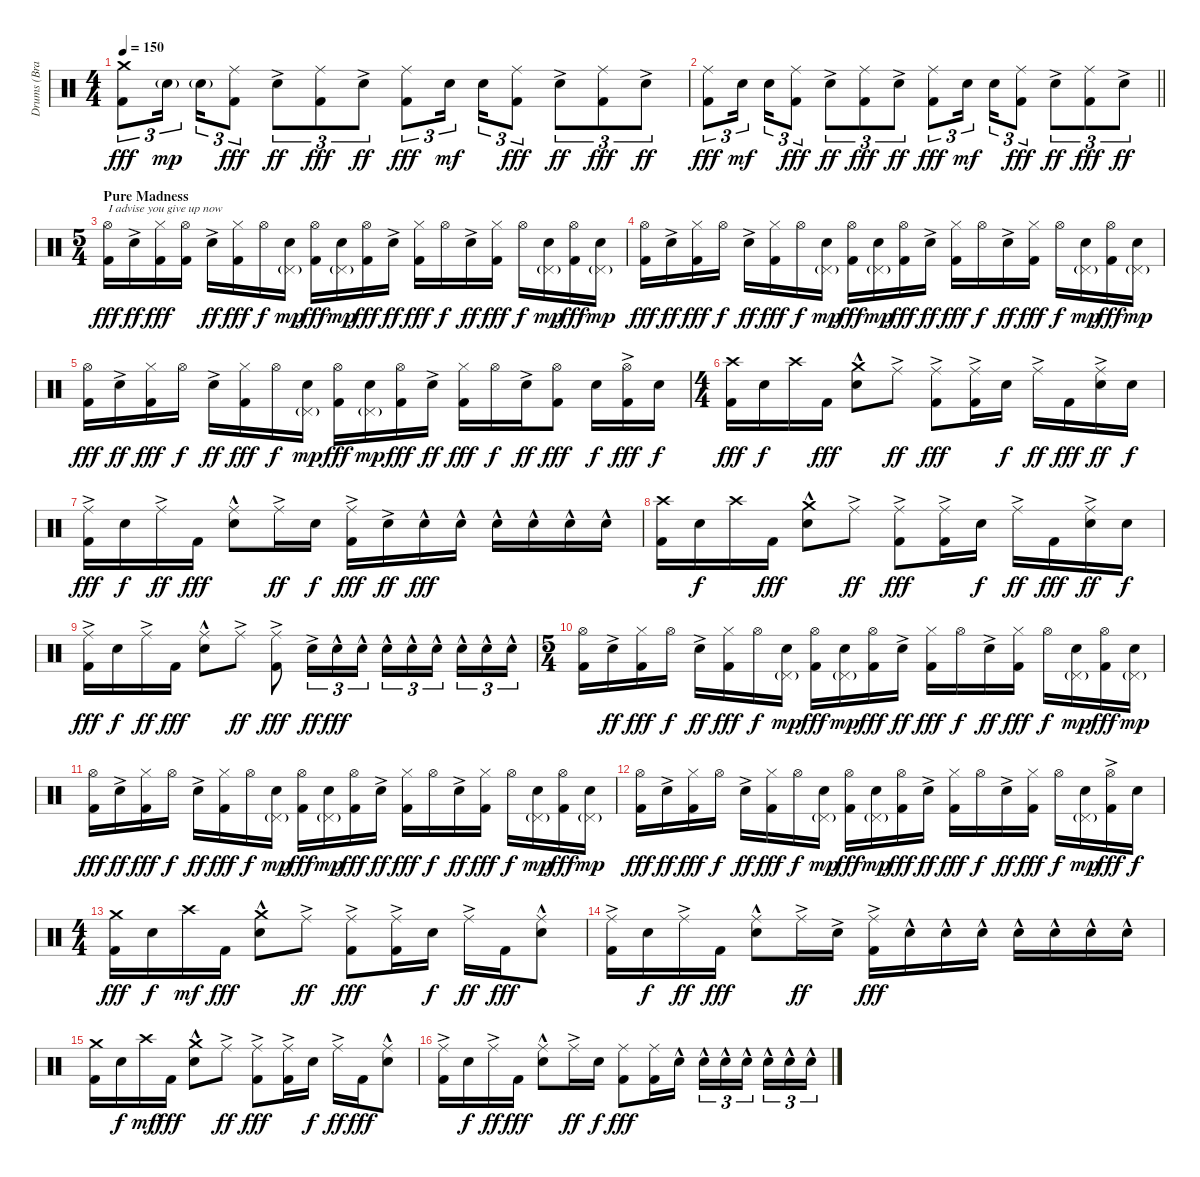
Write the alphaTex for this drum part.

\track ("Drums (Brann Dailor)" "Drums (Bra") {instrument percussion}
\staff {score}
\articulation defaults
\ts (4 4)
\tempo 150
\clef neutral
\ks c
("Crash medium (hit)" "Kick (hit) 2").8{tu (3 2) dy fff} "Electric Snare (hit)"{g}.16{tu (3 2) dy mp beam splitsecondary} "Electric Snare (hit)"{g}.16{tu (3 2)} ("Ride (middle)" "Kick (hit) 2").8{tu (3 2) dy fff} "Electric Snare (hit)"{ac}.8{tu (3 2) dy ff} ("Ride (middle)" "Kick (hit) 2").8{tu (3 2) dy fff} "Electric Snare (hit)"{ac}.8{tu (3 2) dy ff} ("Ride (middle)" "Kick (hit) 2").8{tu (3 2) dy fff} "Electric Snare (hit)".16{tu (3 2) dy mf beam splitsecondary} "Electric Snare (hit)".16{tu (3 2)} ("Ride (middle)" "Kick (hit) 2").8{tu (3 2) dy fff} "Electric Snare (hit)"{ac}.8{tu (3 2) dy ff} ("Ride (middle)" "Kick (hit) 2").8{tu (3 2) dy fff} "Electric Snare (hit)"{ac}.8{tu (3 2) dy ff} |
\barLineRight lightlight
("Ride (middle)" "Kick (hit) 2").8{tu (3 2) dy fff} "Electric Snare (hit)".16{tu (3 2) dy mf beam splitsecondary} "Electric Snare (hit)".16{tu (3 2)} ("Ride (middle)" "Kick (hit) 2").8{tu (3 2) dy fff} "Electric Snare (hit)"{ac}.8{tu (3 2) dy ff} ("Ride (middle)" "Kick (hit) 2").8{tu (3 2) dy fff} "Electric Snare (hit)"{ac}.8{tu (3 2) dy ff} ("Ride (middle)" "Kick (hit) 2").8{tu (3 2) dy fff} "Electric Snare (hit)".16{tu (3 2) dy mf beam splitsecondary} "Electric Snare (hit)".16{tu (3 2)} ("Ride (middle)" "Kick (hit) 2").8{tu (3 2) dy fff} "Electric Snare (hit)"{ac}.8{tu (3 2) dy ff} ("Ride (middle)" "Kick (hit) 2").8{tu (3 2) dy fff} "Electric Snare (hit)"{ac}.8{tu (3 2) dy ff} |
\ts (5 4)
\section ("" "Pure Madness")
("Hi-Hat (open)" "Kick (hit) 2").16{txt "I advise you give up now" dy fff} "Electric Snare (hit)"{ac}.16{dy ff} ("Hi-Hat (closed)" "Kick (hit) 2").16{dy fff} ("Hi-Hat (open)" "Kick (hit) 2").16 "Electric Snare (hit)"{ac}.16{dy ff} ("Hi-Hat (closed)" "Kick (hit) 2").16{dy fff} "Hi-Hat (open)".16{dy f} ("Pedal Hi-Hat (hit)"{g} "Electric Snare (hit)").16{dy mp} ("Hi-Hat (open)" "Kick (hit) 2").16{dy fff} ("Pedal Hi-Hat (hit)"{g} "Electric Snare (hit)").16{dy mp} ("Hi-Hat (open)" "Kick (hit) 2").16{dy fff} "Electric Snare (hit)"{ac}.16{dy ff} ("Hi-Hat (closed)" "Kick (hit) 2").16{dy fff} "Hi-Hat (open)".16{dy f} "Electric Snare (hit)"{ac}.16{dy ff} ("Hi-Hat (closed)" "Kick (hit) 2").16{dy fff} "Hi-Hat (open)".16{dy f} ("Pedal Hi-Hat (hit)"{g} "Electric Snare (hit)").16{dy mp} ("Hi-Hat (open)" "Kick (hit) 2").16{dy fff} ("Pedal Hi-Hat (hit)"{g} "Electric Snare (hit)").16{dy mp} |
("Hi-Hat (open)" "Kick (hit) 2").16{dy fff} "Electric Snare (hit)"{ac}.16{dy ff} ("Hi-Hat (closed)" "Kick (hit) 2").16{dy fff} "Hi-Hat (open)".16{dy f} "Electric Snare (hit)"{ac}.16{dy ff} ("Hi-Hat (closed)" "Kick (hit) 2").16{dy fff} "Hi-Hat (open)".16{dy f} ("Pedal Hi-Hat (hit)"{g} "Electric Snare (hit)").16{dy mp} ("Hi-Hat (open)" "Kick (hit) 2").16{dy fff} ("Pedal Hi-Hat (hit)"{g} "Electric Snare (hit)").16{dy mp} ("Hi-Hat (open)" "Kick (hit) 2").16{dy fff} "Electric Snare (hit)"{ac}.16{dy ff} ("Hi-Hat (closed)" "Kick (hit) 2").16{dy fff} "Hi-Hat (open)".16{dy f} "Electric Snare (hit)"{ac}.16{dy ff} ("Hi-Hat (closed)" "Kick (hit) 2").16{dy fff} "Hi-Hat (open)".16{dy f} ("Pedal Hi-Hat (hit)"{g} "Electric Snare (hit)").16{dy mp} ("Hi-Hat (open)" "Kick (hit) 2").16{dy fff} ("Pedal Hi-Hat (hit)"{g} "Electric Snare (hit)").16{dy mp} |
("Hi-Hat (open)" "Kick (hit) 2").16{dy fff} "Electric Snare (hit)"{ac}.16{dy ff} ("Hi-Hat (closed)" "Kick (hit) 2").16{dy fff} "Hi-Hat (open)".16{dy f} "Electric Snare (hit)"{ac}.16{dy ff} ("Hi-Hat (closed)" "Kick (hit) 2").16{dy fff} "Hi-Hat (open)".16{dy f} ("Pedal Hi-Hat (hit)"{g} "Electric Snare (hit)").16{dy mp} ("Hi-Hat (open)" "Kick (hit) 2").16{dy fff} ("Pedal Hi-Hat (hit)"{g} "Electric Snare (hit)").16{dy mp} ("Hi-Hat (open)" "Kick (hit) 2").16{dy fff} "Electric Snare (hit)"{ac}.16{dy ff} ("Hi-Hat (closed)" "Kick (hit) 2").16{dy fff} "Hi-Hat (open)".16{dy f} "Electric Snare (hit)"{ac}.16{dy ff} ("Hi-Hat (open)" "Kick (hit) 2").8{dy fff} "Electric Snare (hit)".16{dy f} ("Hi-Hat (open)"{ac} "Kick (hit) 2").16{dy fff} "Electric Snare (hit)".16{dy f} |
\ts (4 4)
("Crash high (hit)" "Kick (hit) 2").16{dy fff} "Electric Snare (hit)".16{dy f} "Crash high (hit)".16 "Kick (hit) 2".16{dy fff} ("Crash medium (hit)" "Electric Snare (hit)"{hac}).8 "Ride (middle)"{ac}.8{dy ff} ("Ride (middle)"{ac} "Kick (hit) 2").8{dy fff} ("Ride (middle)"{ac} "Kick (hit) 2").16 "Electric Snare (hit)".16{dy f} "Ride (middle)"{ac}.16{dy ff} "Kick (hit) 2".16{dy fff} ("Ride (middle)"{ac} "Electric Snare (hit)"{ac}).16{dy ff} "Electric Snare (hit)".16{dy f} |
("Ride (middle)"{ac} "Kick (hit) 2").16{dy fff} "Electric Snare (hit)".16{dy f} "Ride (middle)"{ac}.16{dy ff} "Kick (hit) 2".16{dy fff} ("Ride (middle)"{hac} "Electric Snare (hit)"{hac}).8 "Ride (middle)"{ac}.16{dy ff} "Electric Snare (hit)".16{dy f} ("Ride (middle)"{ac} "Kick (hit) 2").16{dy fff} "Electric Snare (hit)"{ac}.16{dy ff} "Electric Snare (hit)"{hac}.16{dy fff} "Electric Snare (hit)"{hac}.16 "Electric Snare (hit)"{hac}.16 "Electric Snare (hit)"{hac}.16 "Electric Snare (hit)"{hac}.16 "Electric Snare (hit)"{hac}.16 |
("Crash high (hit)" "Kick (hit) 2").16 "Electric Snare (hit)".16{dy f} "Crash high (hit)".16 "Kick (hit) 2".16{dy fff} ("Crash medium (hit)" "Electric Snare (hit)"{hac}).8 "Ride (middle)"{ac}.8{dy ff} ("Ride (middle)"{ac} "Kick (hit) 2").8{dy fff} ("Ride (middle)"{ac} "Kick (hit) 2").16 "Electric Snare (hit)".16{dy f} "Ride (middle)"{ac}.16{dy ff} "Kick (hit) 2".16{dy fff} ("Ride (middle)"{ac} "Electric Snare (hit)"{ac}).16{dy ff} "Electric Snare (hit)".16{dy f} |
("Ride (middle)"{ac} "Kick (hit) 2").16{dy fff} "Electric Snare (hit)".16{dy f} "Ride (middle)"{ac}.16{dy ff} "Kick (hit) 2".16{dy fff} ("Ride (middle)"{hac} "Electric Snare (hit)"{hac}).8 "Ride (middle)"{ac}.8{dy ff} ("Ride (middle)"{ac} "Kick (hit) 2").8{dy fff} "Electric Snare (hit)"{ac}.16{tu (3 2) dy ff} "Electric Snare (hit)"{hac}.16{tu (3 2) dy fff} "Electric Snare (hit)"{hac}.16{tu (3 2)} "Electric Snare (hit)"{hac}.16{tu (3 2)} "Electric Snare (hit)"{hac}.16{tu (3 2)} "Electric Snare (hit)"{hac}.16{tu (3 2) beam splitsecondary} "Electric Snare (hit)"{hac}.16{tu (3 2)} "Electric Snare (hit)"{hac}.16{tu (3 2)} "Electric Snare (hit)"{hac}.16{tu (3 2)} |
\ts (5 4)
("Hi-Hat (open)" "Kick (hit) 2").16 "Electric Snare (hit)"{ac}.16{dy ff} ("Hi-Hat (closed)" "Kick (hit) 2").16{dy fff} "Hi-Hat (open)".16{dy f} "Electric Snare (hit)"{ac}.16{dy ff} ("Hi-Hat (closed)" "Kick (hit) 2").16{dy fff} "Hi-Hat (open)".16{dy f} ("Pedal Hi-Hat (hit)"{g} "Electric Snare (hit)").16{dy mp} ("Hi-Hat (open)" "Kick (hit) 2").16{dy fff} ("Pedal Hi-Hat (hit)"{g} "Electric Snare (hit)").16{dy mp} ("Hi-Hat (open)" "Kick (hit) 2").16{dy fff} "Electric Snare (hit)"{ac}.16{dy ff} ("Hi-Hat (closed)" "Kick (hit) 2").16{dy fff} "Hi-Hat (open)".16{dy f} "Electric Snare (hit)"{ac}.16{dy ff} ("Hi-Hat (closed)" "Kick (hit) 2").16{dy fff} "Hi-Hat (open)".16{dy f} ("Pedal Hi-Hat (hit)"{g} "Electric Snare (hit)").16{dy mp} ("Hi-Hat (open)" "Kick (hit) 2").16{dy fff} ("Pedal Hi-Hat (hit)"{g} "Electric Snare (hit)").16{dy mp} |
("Hi-Hat (open)" "Kick (hit) 2").16{dy fff} "Electric Snare (hit)"{ac}.16{dy ff} ("Hi-Hat (closed)" "Kick (hit) 2").16{dy fff} "Hi-Hat (open)".16{dy f} "Electric Snare (hit)"{ac}.16{dy ff} ("Hi-Hat (closed)" "Kick (hit) 2").16{dy fff} "Hi-Hat (open)".16{dy f} ("Pedal Hi-Hat (hit)"{g} "Electric Snare (hit)").16{dy mp} ("Hi-Hat (open)" "Kick (hit) 2").16{dy fff} ("Pedal Hi-Hat (hit)"{g} "Electric Snare (hit)").16{dy mp} ("Hi-Hat (open)" "Kick (hit) 2").16{dy fff} "Electric Snare (hit)"{ac}.16{dy ff} ("Hi-Hat (closed)" "Kick (hit) 2").16{dy fff} "Hi-Hat (open)".16{dy f} "Electric Snare (hit)"{ac}.16{dy ff} ("Hi-Hat (closed)" "Kick (hit) 2").16{dy fff} "Hi-Hat (open)".16{dy f} ("Pedal Hi-Hat (hit)"{g} "Electric Snare (hit)").16{dy mp} ("Hi-Hat (open)" "Kick (hit) 2").16{dy fff} ("Pedal Hi-Hat (hit)"{g} "Electric Snare (hit)").16{dy mp} |
("Hi-Hat (open)" "Kick (hit) 2").16{dy fff} "Electric Snare (hit)"{ac}.16{dy ff} ("Hi-Hat (closed)" "Kick (hit) 2").16{dy fff} "Hi-Hat (open)".16{dy f} "Electric Snare (hit)"{ac}.16{dy ff} ("Hi-Hat (closed)" "Kick (hit) 2").16{dy fff} "Hi-Hat (open)".16{dy f} ("Pedal Hi-Hat (hit)"{g} "Electric Snare (hit)").16{dy mp} ("Hi-Hat (open)" "Kick (hit) 2").16{dy fff} ("Pedal Hi-Hat (hit)"{g} "Electric Snare (hit)").16{dy mp} ("Hi-Hat (open)" "Kick (hit) 2").16{dy fff} "Electric Snare (hit)"{ac}.16{dy ff} ("Hi-Hat (closed)" "Kick (hit) 2").16{dy fff} "Hi-Hat (open)".16{dy f} "Electric Snare (hit)"{ac}.16{dy ff} ("Hi-Hat (closed)" "Kick (hit) 2").16{dy fff} "Hi-Hat (open)".16{dy f} ("Pedal Hi-Hat (hit)"{g} "Electric Snare (hit)").16{dy mp} ("Hi-Hat (open)"{ac} "Kick (hit) 2").16{dy fff} "Electric Snare (hit)".16{dy f} |
\ts (4 4)
("Crash medium (hit)" "Kick (hit) 2").16{dy fff} "Electric Snare (hit)".16{dy f} "Crash high (hit)".16{dy mf} "Kick (hit) 2".16{dy fff} ("Crash medium (hit)" "Electric Snare (hit)"{hac}).8 "Ride (middle)"{ac}.8{dy ff} ("Ride (middle)"{ac} "Kick (hit) 2").8{dy fff} ("Ride (middle)"{ac} "Kick (hit) 2").16 "Electric Snare (hit)".16{dy f} "Ride (middle)"{ac}.16{dy ff} "Kick (hit) 2".16{dy fff} ("Ride (middle)"{hac} "Electric Snare (hit)"{hac}).8 |
("Ride (middle)"{ac} "Kick (hit) 2").16 "Electric Snare (hit)".16{dy f} "Ride (middle)"{ac}.16{dy ff} "Kick (hit) 2".16{dy fff} ("Ride (middle)"{hac} "Electric Snare (hit)").8 "Ride (middle)"{ac}.16{dy ff} "Electric Snare (hit)"{ac}.16 ("Ride (middle)"{ac} "Kick (hit) 2").16{dy fff} "Electric Snare (hit)"{hac}.16 "Electric Snare (hit)"{hac}.16 "Electric Snare (hit)"{hac}.16 "Electric Snare (hit)"{hac}.16 "Electric Snare (hit)"{hac}.16 "Electric Snare (hit)"{hac}.16 "Electric Snare (hit)"{hac}.16 |
("Crash medium (hit)" "Kick (hit) 2").16 "Electric Snare (hit)".16{dy f} "Crash high (hit)".16{dy mf} "Kick (hit) 2".16{dy fff} ("Crash medium (hit)" "Electric Snare (hit)"{hac}).8 "Ride (middle)"{ac}.8{dy ff} ("Ride (middle)"{ac} "Kick (hit) 2").8{dy fff} ("Ride (middle)"{ac} "Kick (hit) 2").16 "Electric Snare (hit)".16{dy f} "Ride (middle)"{ac}.16{dy ff} "Kick (hit) 2".16{dy fff} ("Ride (middle)"{hac} "Electric Snare (hit)"{hac}).8 |
("Ride (middle)"{ac} "Kick (hit) 2").16 "Electric Snare (hit)".16{dy f} "Ride (middle)"{ac}.16{dy ff} "Kick (hit) 2".16{dy fff} ("Ride (middle)"{hac} "Electric Snare (hit)"{hac}).8 "Ride (middle)"{ac}.16{dy ff} "Electric Snare (hit)".16{dy f} ("Ride (middle)" "Kick (hit) 2").8{dy fff} ("Ride (middle)" "Kick (hit) 2").16 "Electric Snare (hit)"{hac}.16 "Electric Snare (hit)"{hac}.16{tu (3 2)} "Electric Snare (hit)"{hac}.16{tu (3 2)} "Electric Snare (hit)"{hac}.16{tu (3 2) beam splitsecondary} "Electric Snare (hit)"{hac}.16{tu (3 2)} "Electric Snare (hit)"{hac}.16{tu (3 2)} "Electric Snare (hit)"{hac}.16{tu (3 2)}
